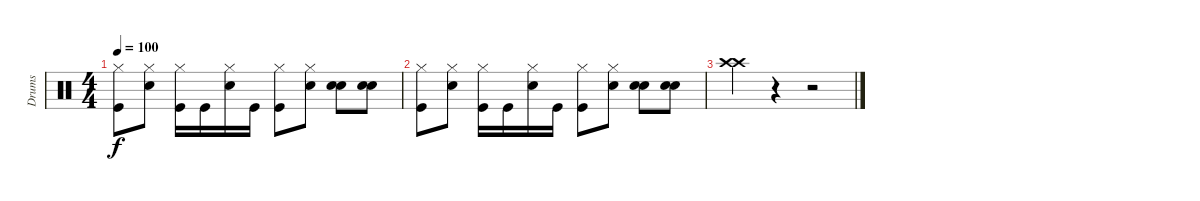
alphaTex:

\track ("Drums" "Drums") {instrument percussion}
\staff {score}
\articulation defaults
\ts (4 4)
\tempo 100
\clef neutral
\ks c
("Hi-Hat (closed)" "Kick (hit)").8{dy f} ("Hi-Hat (closed)" "Snare (hit) 2").8 ("Hi-Hat (closed)" "Kick (hit)").16 "Kick (hit)".16 ("Hi-Hat (closed)" "Snare (hit) 2").16 "Kick (hit)".16 ("Hi-Hat (closed)" "Kick (hit)").8 ("Hi-Hat (closed)" "Snare (hit) 2").8 ("Snare (hit) 2" "Snare (hit) 2").8 ("Snare (hit) 2" "Snare (hit) 2").8 |
("Hi-Hat (closed)" "Kick (hit)").8 ("Hi-Hat (closed)" "Snare (hit) 2").8 ("Hi-Hat (closed)" "Kick (hit)").16 "Kick (hit)".16 ("Hi-Hat (closed)" "Snare (hit) 2").16 "Kick (hit)".16 ("Hi-Hat (closed)" "Kick (hit)").8 ("Hi-Hat (closed)" "Snare (hit) 2").8 ("Snare (hit) 2" "Snare (hit) 2").8 ("Snare (hit) 2" "Snare (hit) 2").8 |
("Crash high (hit)" "Crash high (hit)").4 r.4 r.2
